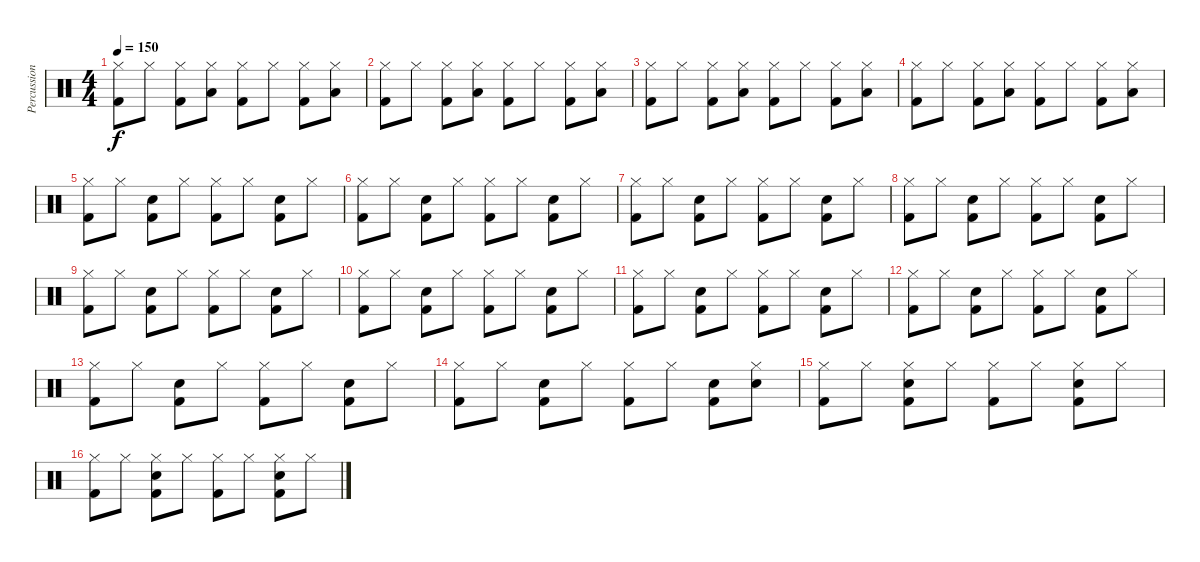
\track ("Percussion" "Percussion") {instrument percussion}
\staff {score}
\articulation defaults
\ts (4 4)
\tempo 150
\clef neutral
\ks c
("Hi-Hat (closed)" "Kick (hit) 2").8{dy f} "Hi-Hat (closed)".8 ("Hi-Hat (closed)" "Kick (hit) 2").8 ("Hi-Hat (closed)" "Low Floor Tom (hit)").8 ("Hi-Hat (closed)" "Kick (hit) 2").8 "Hi-Hat (closed)".8 ("Hi-Hat (closed)" "Kick (hit) 2").8 ("Hi-Hat (closed)" "Low Floor Tom (hit)").8 |
("Hi-Hat (closed)" "Kick (hit) 2").8 "Hi-Hat (closed)".8 ("Hi-Hat (closed)" "Kick (hit) 2").8 ("Hi-Hat (closed)" "Low Floor Tom (hit)").8 ("Hi-Hat (closed)" "Kick (hit) 2").8 "Hi-Hat (closed)".8 ("Hi-Hat (closed)" "Kick (hit) 2").8 ("Hi-Hat (closed)" "Low Floor Tom (hit)").8 |
("Hi-Hat (closed)" "Kick (hit) 2").8 "Hi-Hat (closed)".8 ("Hi-Hat (closed)" "Kick (hit) 2").8 ("Hi-Hat (closed)" "Low Floor Tom (hit)").8 ("Hi-Hat (closed)" "Kick (hit) 2").8 "Hi-Hat (closed)".8 ("Hi-Hat (closed)" "Kick (hit) 2").8 ("Hi-Hat (closed)" "Low Floor Tom (hit)").8 |
("Hi-Hat (closed)" "Kick (hit) 2").8 "Hi-Hat (closed)".8 ("Hi-Hat (closed)" "Kick (hit) 2").8 ("Hi-Hat (closed)" "Low Floor Tom (hit)").8 ("Hi-Hat (closed)" "Kick (hit) 2").8 "Hi-Hat (closed)".8 ("Hi-Hat (closed)" "Kick (hit) 2").8 ("Hi-Hat (closed)" "Low Floor Tom (hit)").8 |
("Hi-Hat (closed)" "Kick (hit) 2").8 "Hi-Hat (closed)".8 ("Snare (hit) 2" "Kick (hit) 2").8 "Hi-Hat (closed)".8 ("Hi-Hat (closed)" "Kick (hit) 2").8 "Hi-Hat (closed)".8 ("Snare (hit) 2" "Kick (hit) 2").8 "Hi-Hat (closed)".8 |
("Hi-Hat (closed)" "Kick (hit) 2").8 "Hi-Hat (closed)".8 ("Snare (hit) 2" "Kick (hit) 2").8 "Hi-Hat (closed)".8 ("Hi-Hat (closed)" "Kick (hit) 2").8 "Hi-Hat (closed)".8 ("Snare (hit) 2" "Kick (hit) 2").8 "Hi-Hat (closed)".8 |
("Hi-Hat (closed)" "Kick (hit) 2").8 "Hi-Hat (closed)".8 ("Snare (hit) 2" "Kick (hit) 2").8 "Hi-Hat (closed)".8 ("Hi-Hat (closed)" "Kick (hit) 2").8 "Hi-Hat (closed)".8 ("Snare (hit) 2" "Kick (hit) 2").8 "Hi-Hat (closed)".8 |
("Hi-Hat (closed)" "Kick (hit) 2").8 "Hi-Hat (closed)".8 ("Snare (hit) 2" "Kick (hit) 2").8 "Hi-Hat (closed)".8 ("Hi-Hat (closed)" "Kick (hit) 2").8 "Hi-Hat (closed)".8 ("Snare (hit) 2" "Kick (hit) 2").8 "Hi-Hat (closed)".8 |
("Hi-Hat (closed)" "Kick (hit) 2").8 "Hi-Hat (closed)".8 ("Snare (hit) 2" "Kick (hit) 2").8 "Hi-Hat (closed)".8 ("Hi-Hat (closed)" "Kick (hit) 2").8 "Hi-Hat (closed)".8 ("Snare (hit) 2" "Kick (hit) 2").8 "Hi-Hat (closed)".8 |
("Hi-Hat (closed)" "Kick (hit) 2").8 "Hi-Hat (closed)".8 ("Snare (hit) 2" "Kick (hit) 2").8 "Hi-Hat (closed)".8 ("Hi-Hat (closed)" "Kick (hit) 2").8 "Hi-Hat (closed)".8 ("Snare (hit) 2" "Kick (hit) 2").8 "Hi-Hat (closed)".8 |
("Hi-Hat (closed)" "Kick (hit) 2").8 "Hi-Hat (closed)".8 ("Snare (hit) 2" "Kick (hit) 2").8 "Hi-Hat (closed)".8 ("Hi-Hat (closed)" "Kick (hit) 2").8 "Hi-Hat (closed)".8 ("Snare (hit) 2" "Kick (hit) 2").8 "Hi-Hat (closed)".8 |
("Hi-Hat (closed)" "Kick (hit) 2").8 "Hi-Hat (closed)".8 ("Snare (hit) 2" "Kick (hit) 2").8 "Hi-Hat (closed)".8 ("Hi-Hat (closed)" "Kick (hit) 2").8 "Hi-Hat (closed)".8 ("Snare (hit) 2" "Kick (hit) 2").8 "Hi-Hat (closed)".8 |
("Hi-Hat (closed)" "Kick (hit) 2").8 "Hi-Hat (closed)".8 ("Snare (hit) 2" "Kick (hit) 2").8 "Hi-Hat (closed)".8 ("Hi-Hat (closed)" "Kick (hit) 2").8 "Hi-Hat (closed)".8 ("Snare (hit) 2" "Kick (hit) 2").8 "Hi-Hat (closed)".8 |
("Hi-Hat (closed)" "Kick (hit) 2").8 "Hi-Hat (closed)".8 ("Snare (hit) 2" "Kick (hit) 2").8 "Hi-Hat (closed)".8 ("Hi-Hat (closed)" "Kick (hit) 2").8 "Hi-Hat (closed)".8 ("Snare (hit) 2" "Kick (hit) 2").8 ("Hi-Hat (closed)" "Snare (hit) 2").8 |
("Hi-Hat (closed)" "Kick (hit) 2").8 "Hi-Hat (closed)".8 ("Hi-Hat (closed)" "Snare (hit) 2" "Kick (hit) 2").8 "Hi-Hat (closed)".8 ("Hi-Hat (closed)" "Kick (hit) 2").8 "Hi-Hat (closed)".8 ("Hi-Hat (closed)" "Snare (hit) 2" "Kick (hit) 2").8 "Hi-Hat (closed)".8 |
("Hi-Hat (closed)" "Kick (hit) 2").8 "Hi-Hat (closed)".8 ("Hi-Hat (closed)" "Snare (hit) 2" "Kick (hit) 2").8 "Hi-Hat (closed)".8 ("Hi-Hat (closed)" "Kick (hit) 2").8 "Hi-Hat (closed)".8 ("Hi-Hat (closed)" "Snare (hit) 2" "Kick (hit) 2").8 "Hi-Hat (closed)".8
